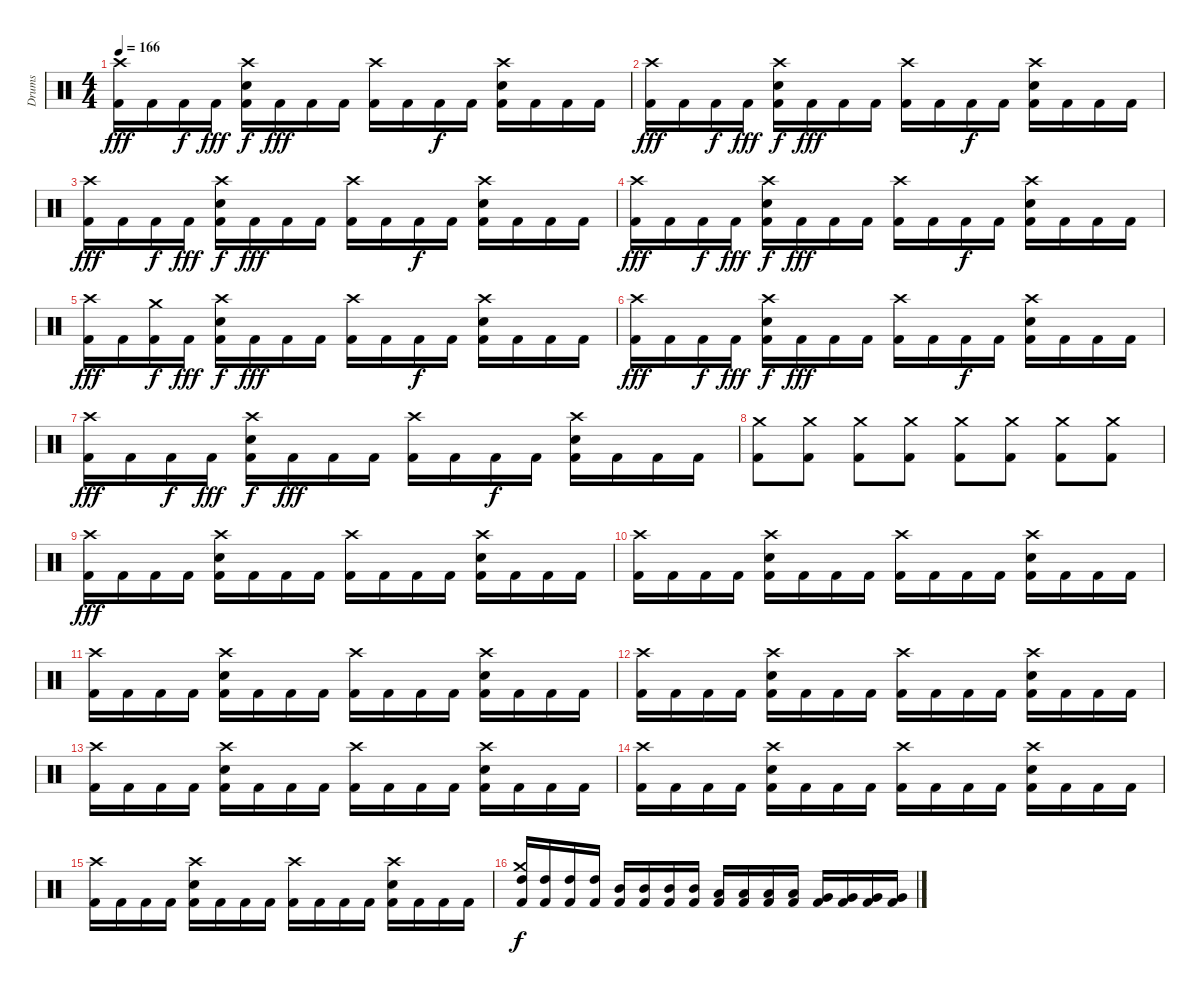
\track ("Drums" "Drums") {instrument percussion}
\staff {score}
\articulation defaults
\ts (4 4)
\tempo 166
\clef neutral
\ks c
("Crash high (hit)" "Kick (hit) 2").16{dy fff} "Kick (hit) 2".16 "Kick (hit) 2".16{dy f} "Kick (hit) 2".16{dy fff} ("Crash high (hit)" "Snare (hit) 2" "Kick (hit) 2").16{dy f} "Kick (hit) 2".16{dy fff} "Kick (hit) 2".16 "Kick (hit) 2".16 ("Crash high (hit)" "Kick (hit) 2").16 "Kick (hit) 2".16 "Kick (hit) 2".16{dy f} "Kick (hit) 2".16 ("Crash high (hit)" "Snare (hit) 2" "Kick (hit) 2").16 "Kick (hit) 2".16 "Kick (hit) 2".16 "Kick (hit) 2".16 |
("Crash high (hit)" "Kick (hit) 2").16{dy fff} "Kick (hit) 2".16 "Kick (hit) 2".16{dy f} "Kick (hit) 2".16{dy fff} ("Crash high (hit)" "Snare (hit) 2" "Kick (hit) 2").16{dy f} "Kick (hit) 2".16{dy fff} "Kick (hit) 2".16 "Kick (hit) 2".16 ("Crash high (hit)" "Kick (hit) 2").16 "Kick (hit) 2".16 "Kick (hit) 2".16{dy f} "Kick (hit) 2".16 ("Crash high (hit)" "Snare (hit) 2" "Kick (hit) 2").16 "Kick (hit) 2".16 "Kick (hit) 2".16 "Kick (hit) 2".16 |
("Crash high (hit)" "Kick (hit) 2").16{dy fff} "Kick (hit) 2".16 "Kick (hit) 2".16{dy f} "Kick (hit) 2".16{dy fff} ("Crash high (hit)" "Snare (hit) 2" "Kick (hit) 2").16{dy f} "Kick (hit) 2".16{dy fff} "Kick (hit) 2".16 "Kick (hit) 2".16 ("Crash high (hit)" "Kick (hit) 2").16 "Kick (hit) 2".16 "Kick (hit) 2".16{dy f} "Kick (hit) 2".16 ("Crash high (hit)" "Snare (hit) 2" "Kick (hit) 2").16 "Kick (hit) 2".16 "Kick (hit) 2".16 "Kick (hit) 2".16 |
("Crash high (hit)" "Kick (hit) 2").16{dy fff} "Kick (hit) 2".16 "Kick (hit) 2".16{dy f} "Kick (hit) 2".16{dy fff} ("Crash high (hit)" "Snare (hit) 2" "Kick (hit) 2").16{dy f} "Kick (hit) 2".16{dy fff} "Kick (hit) 2".16 "Kick (hit) 2".16 ("Crash high (hit)" "Kick (hit) 2").16 "Kick (hit) 2".16 "Kick (hit) 2".16{dy f} "Kick (hit) 2".16 ("Crash high (hit)" "Snare (hit) 2" "Kick (hit) 2").16 "Kick (hit) 2".16 "Kick (hit) 2".16 "Kick (hit) 2".16 |
("Crash high (hit)" "Kick (hit) 2").16{dy fff} "Kick (hit) 2".16 ("Crash medium (hit)" "Kick (hit) 2").16{dy f} "Kick (hit) 2".16{dy fff} ("Crash high (hit)" "Snare (hit) 2" "Kick (hit) 2").16{dy f} "Kick (hit) 2".16{dy fff} "Kick (hit) 2".16 "Kick (hit) 2".16 ("Crash high (hit)" "Kick (hit) 2").16 "Kick (hit) 2".16 "Kick (hit) 2".16{dy f} "Kick (hit) 2".16 ("Crash high (hit)" "Snare (hit) 2" "Kick (hit) 2").16 "Kick (hit) 2".16 "Kick (hit) 2".16 "Kick (hit) 2".16 |
("Crash high (hit)" "Kick (hit) 2").16{dy fff} "Kick (hit) 2".16 "Kick (hit) 2".16{dy f} "Kick (hit) 2".16{dy fff} ("Crash high (hit)" "Snare (hit) 2" "Kick (hit) 2").16{dy f} "Kick (hit) 2".16{dy fff} "Kick (hit) 2".16 "Kick (hit) 2".16 ("Crash high (hit)" "Kick (hit) 2").16 "Kick (hit) 2".16 "Kick (hit) 2".16{dy f} "Kick (hit) 2".16 ("Crash high (hit)" "Snare (hit) 2" "Kick (hit) 2").16 "Kick (hit) 2".16 "Kick (hit) 2".16 "Kick (hit) 2".16 |
("Crash high (hit)" "Kick (hit) 2").16{dy fff} "Kick (hit) 2".16 "Kick (hit) 2".16{dy f} "Kick (hit) 2".16{dy fff} ("Crash high (hit)" "Snare (hit) 2" "Kick (hit) 2").16{dy f} "Kick (hit) 2".16{dy fff} "Kick (hit) 2".16 "Kick (hit) 2".16 ("Crash high (hit)" "Kick (hit) 2").16 "Kick (hit) 2".16 "Kick (hit) 2".16{dy f} "Kick (hit) 2".16 ("Crash high (hit)" "Snare (hit) 2" "Kick (hit) 2").16 "Kick (hit) 2".16 "Kick (hit) 2".16 "Kick (hit) 2".16 |
("Crash medium (hit)" "Kick (hit) 2").8 ("Crash medium (hit)" "Kick (hit) 2").8 ("Crash medium (hit)" "Kick (hit) 2").8 ("Crash medium (hit)" "Kick (hit) 2").8 ("Crash medium (hit)" "Kick (hit) 2").8 ("Crash medium (hit)" "Kick (hit) 2").8 ("Crash medium (hit)" "Kick (hit) 2").8 ("Crash medium (hit)" "Kick (hit) 2").8 |
("Crash high (hit)" "Kick (hit) 2").16{dy fff} "Kick (hit) 2".16 "Kick (hit) 2".16 "Kick (hit) 2".16 ("Crash high (hit)" "Snare (hit) 2" "Kick (hit) 2").16 "Kick (hit) 2".16 "Kick (hit) 2".16 "Kick (hit) 2".16 ("Crash high (hit)" "Kick (hit) 2").16 "Kick (hit) 2".16 "Kick (hit) 2".16 "Kick (hit) 2".16 ("Crash high (hit)" "Snare (hit) 2" "Kick (hit) 2").16 "Kick (hit) 2".16 "Kick (hit) 2".16 "Kick (hit) 2".16 |
("Crash high (hit)" "Kick (hit) 2").16 "Kick (hit) 2".16 "Kick (hit) 2".16 "Kick (hit) 2".16 ("Crash high (hit)" "Snare (hit) 2" "Kick (hit) 2").16 "Kick (hit) 2".16 "Kick (hit) 2".16 "Kick (hit) 2".16 ("Crash high (hit)" "Kick (hit) 2").16 "Kick (hit) 2".16 "Kick (hit) 2".16 "Kick (hit) 2".16 ("Crash high (hit)" "Snare (hit) 2" "Kick (hit) 2").16 "Kick (hit) 2".16 "Kick (hit) 2".16 "Kick (hit) 2".16 |
("Crash high (hit)" "Kick (hit) 2").16 "Kick (hit) 2".16 "Kick (hit) 2".16 "Kick (hit) 2".16 ("Crash high (hit)" "Snare (hit) 2" "Kick (hit) 2").16 "Kick (hit) 2".16 "Kick (hit) 2".16 "Kick (hit) 2".16 ("Crash high (hit)" "Kick (hit) 2").16 "Kick (hit) 2".16 "Kick (hit) 2".16 "Kick (hit) 2".16 ("Crash high (hit)" "Snare (hit) 2" "Kick (hit) 2").16 "Kick (hit) 2".16 "Kick (hit) 2".16 "Kick (hit) 2".16 |
("Crash high (hit)" "Kick (hit) 2").16 "Kick (hit) 2".16 "Kick (hit) 2".16 "Kick (hit) 2".16 ("Crash high (hit)" "Snare (hit) 2" "Kick (hit) 2").16 "Kick (hit) 2".16 "Kick (hit) 2".16 "Kick (hit) 2".16 ("Crash high (hit)" "Kick (hit) 2").16 "Kick (hit) 2".16 "Kick (hit) 2".16 "Kick (hit) 2".16 ("Crash high (hit)" "Snare (hit) 2" "Kick (hit) 2").16 "Kick (hit) 2".16 "Kick (hit) 2".16 "Kick (hit) 2".16 |
("Crash high (hit)" "Kick (hit) 2").16 "Kick (hit) 2".16 "Kick (hit) 2".16 "Kick (hit) 2".16 ("Crash high (hit)" "Snare (hit) 2" "Kick (hit) 2").16 "Kick (hit) 2".16 "Kick (hit) 2".16 "Kick (hit) 2".16 ("Crash high (hit)" "Kick (hit) 2").16 "Kick (hit) 2".16 "Kick (hit) 2".16 "Kick (hit) 2".16 ("Crash high (hit)" "Snare (hit) 2" "Kick (hit) 2").16 "Kick (hit) 2".16 "Kick (hit) 2".16 "Kick (hit) 2".16 |
("Crash high (hit)" "Kick (hit) 2").16 "Kick (hit) 2".16 "Kick (hit) 2".16 "Kick (hit) 2".16 ("Crash high (hit)" "Snare (hit) 2" "Kick (hit) 2").16 "Kick (hit) 2".16 "Kick (hit) 2".16 "Kick (hit) 2".16 ("Crash high (hit)" "Kick (hit) 2").16 "Kick (hit) 2".16 "Kick (hit) 2".16 "Kick (hit) 2".16 ("Crash high (hit)" "Snare (hit) 2" "Kick (hit) 2").16 "Kick (hit) 2".16 "Kick (hit) 2".16 "Kick (hit) 2".16 |
("Crash high (hit)" "Kick (hit) 2").16 "Kick (hit) 2".16 "Kick (hit) 2".16 "Kick (hit) 2".16 ("Crash high (hit)" "Snare (hit) 2" "Kick (hit) 2").16 "Kick (hit) 2".16 "Kick (hit) 2".16 "Kick (hit) 2".16 ("Crash high (hit)" "Kick (hit) 2").16 "Kick (hit) 2".16 "Kick (hit) 2".16 "Kick (hit) 2".16 ("Crash high (hit)" "Snare (hit) 2" "Kick (hit) 2").16 "Kick (hit) 2".16 "Kick (hit) 2".16 "Kick (hit) 2".16 |
("Crash medium (hit)" "High Tom (hit)" "Kick (hit) 2").16{dy f} ("High Tom (hit)" "Kick (hit) 2").16 ("High Tom (hit)" "Kick (hit) 2").16 ("High Tom (hit)" "Kick (hit) 2").16 ("Mid Tom (hit)" "Kick (hit) 2").16 ("Mid Tom (hit)" "Kick (hit) 2").16 ("Mid Tom (hit)" "Kick (hit) 2").16 ("Mid Tom (hit)" "Kick (hit) 2").16 ("Low Tom (hit)" "Kick (hit) 2").16 ("Low Tom (hit)" "Kick (hit) 2").16 ("Low Tom (hit)" "Kick (hit) 2").16 ("Low Tom (hit)" "Kick (hit) 2").16 ("Very Low Tom (hit)" "Kick (hit) 2").16 ("Very Low Tom (hit)" "Kick (hit) 2").16 ("Very Low Tom (hit)" "Kick (hit) 2").16 ("Very Low Tom (hit)" "Kick (hit) 2").16
